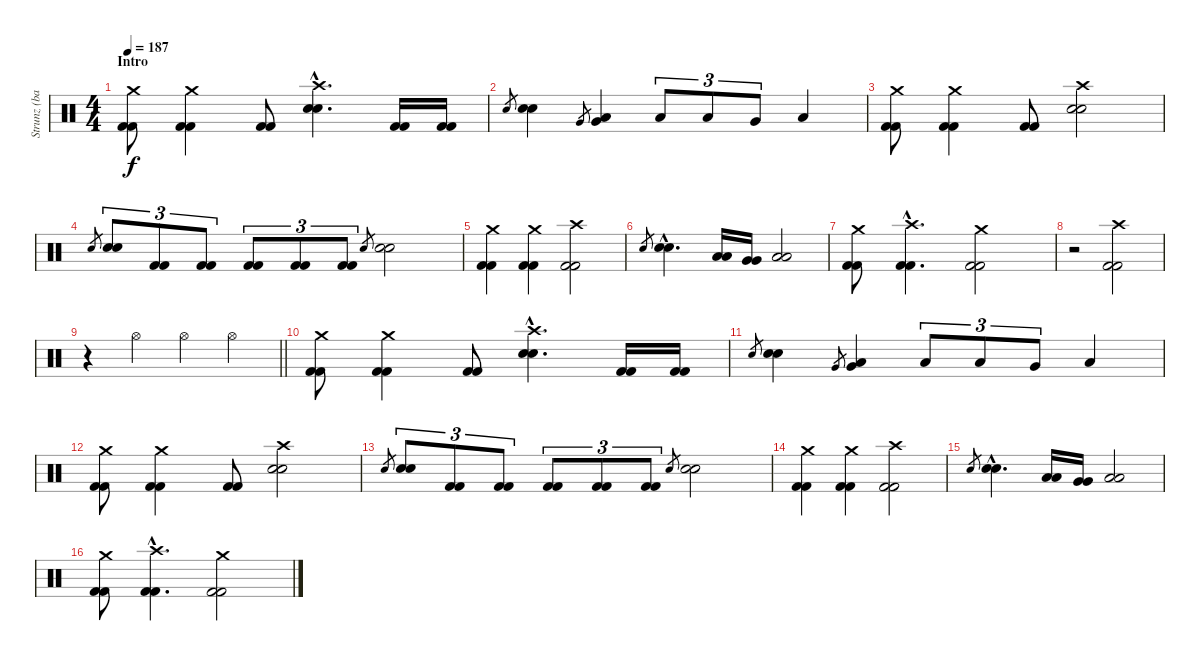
\track ("Strunz (bateria)" "Strunz (ba") {instrument percussion}
\staff {score}
\articulation defaults
\ts (4 4)
\section ("" "Intro")
\tempo 187
\clef neutral
\ks c
("Crash medium (hit)" "Kick (hit) 2" "Kick (hit) 2").8{dy f} ("Crash medium (hit)" "Kick (hit) 2" "Kick (hit) 2").4 ("Kick (hit) 2" "Kick (hit) 2").8 ("Crash high (hit)"{hac} "Snare (hit) 2"{hac} "Snare (hit) 2"{hac}).4{d} ("Kick (hit) 2" "Kick (hit) 2").16 ("Kick (hit) 2" "Kick (hit) 2").16 |
"Snare (hit) 2".8{gr} ("Snare (hit) 2" "Snare (hit) 2").4 "Very Low Tom (hit)".8{gr} ("Very Low Tom (hit)" "Low Tom (hit)").4 "Low Tom (hit)".8{tu (3 2)} "Low Tom (hit)".8{tu (3 2)} "Very Low Tom (hit)".8{tu (3 2)} "Low Floor Tom (hit)".4 |
("Crash medium (hit)" "Kick (hit) 2" "Kick (hit) 2").8 ("Crash medium (hit)" "Kick (hit) 2" "Kick (hit) 2").4 ("Kick (hit) 2" "Kick (hit) 2").8 ("Crash high (hit)" "Snare (hit) 2" "Snare (hit) 2").2 |
"Snare (hit) 2".8{gr} ("Snare (hit) 2" "Snare (hit) 2").8{tu (3 2)} ("Kick (hit) 2" "Kick (hit) 2").8{tu (3 2)} ("Kick (hit) 2" "Kick (hit) 2").8{tu (3 2)} ("Kick (hit) 2" "Kick (hit) 2").8{tu (3 2)} ("Kick (hit) 2" "Kick (hit) 2").8{tu (3 2)} ("Kick (hit) 2" "Kick (hit) 2").8{tu (3 2)} "Snare (hit) 2".8{gr} ("Snare (hit) 2" "Snare (hit) 2").2 |
("Crash medium (hit)" "Kick (hit) 2" "Kick (hit) 2").4 ("Crash medium (hit)" "Kick (hit) 2" "Kick (hit) 2").4 ("Crash high (hit)" "Kick (hit) 2" "Kick (hit) 2").2 |
"Snare (hit) 2".8{gr} ("Snare (hit) 2"{hac} "Snare (hit) 2"{hac}).4{d} ("Low Tom (hit)" "Low Tom (hit)").16 ("Very Low Tom (hit)" "Very Low Tom (hit)").16 ("Low Floor Tom (hit)" "Low Floor Tom (hit)").2 |
("Crash medium (hit)" "Kick (hit) 2" "Kick (hit) 2").8 ("Crash high (hit)"{hac} "Kick (hit) 2"{hac} "Kick (hit) 2"{hac}).4{d} ("Crash medium (hit)" "Kick (hit) 2" "Kick (hit) 2").2 |
r.2 ("Crash high (hit)" "Kick (hit) 2" "Kick (hit) 2").2 |
\barLineRight lightlight
r.4 "Hi-Hat (open)".4 "Hi-Hat (open)".4 "Hi-Hat (open)".4 |
("Crash medium (hit)" "Kick (hit) 2" "Kick (hit) 2").8 ("Crash medium (hit)" "Kick (hit) 2" "Kick (hit) 2").4 ("Kick (hit) 2" "Kick (hit) 2").8 ("Crash high (hit)"{hac} "Snare (hit) 2"{hac} "Snare (hit) 2"{hac}).4{d} ("Kick (hit) 2" "Kick (hit) 2").16 ("Kick (hit) 2" "Kick (hit) 2").16 |
"Snare (hit) 2".8{gr} ("Snare (hit) 2" "Snare (hit) 2").4 "Very Low Tom (hit)".8{gr} ("Very Low Tom (hit)" "Low Tom (hit)").4 "Low Tom (hit)".8{tu (3 2)} "Low Tom (hit)".8{tu (3 2)} "Very Low Tom (hit)".8{tu (3 2)} "Low Floor Tom (hit)".4 |
("Crash medium (hit)" "Kick (hit) 2" "Kick (hit) 2").8 ("Crash medium (hit)" "Kick (hit) 2" "Kick (hit) 2").4 ("Kick (hit) 2" "Kick (hit) 2").8 ("Crash high (hit)" "Snare (hit) 2" "Snare (hit) 2").2 |
"Snare (hit) 2".8{gr} ("Snare (hit) 2" "Snare (hit) 2").8{tu (3 2)} ("Kick (hit) 2" "Kick (hit) 2").8{tu (3 2)} ("Kick (hit) 2" "Kick (hit) 2").8{tu (3 2)} ("Kick (hit) 2" "Kick (hit) 2").8{tu (3 2)} ("Kick (hit) 2" "Kick (hit) 2").8{tu (3 2)} ("Kick (hit) 2" "Kick (hit) 2").8{tu (3 2)} "Snare (hit) 2".8{gr} ("Snare (hit) 2" "Snare (hit) 2").2 |
("Crash medium (hit)" "Kick (hit) 2" "Kick (hit) 2").4 ("Crash medium (hit)" "Kick (hit) 2" "Kick (hit) 2").4 ("Crash high (hit)" "Kick (hit) 2" "Kick (hit) 2").2 |
"Snare (hit) 2".8{gr} ("Snare (hit) 2"{hac} "Snare (hit) 2"{hac}).4{d} ("Low Tom (hit)" "Low Tom (hit)").16 ("Very Low Tom (hit)" "Very Low Tom (hit)").16 ("Low Floor Tom (hit)" "Low Floor Tom (hit)").2 |
("Crash medium (hit)" "Kick (hit) 2" "Kick (hit) 2").8 ("Crash high (hit)"{hac} "Kick (hit) 2"{hac} "Kick (hit) 2"{hac}).4{d} ("Crash medium (hit)" "Kick (hit) 2" "Kick (hit) 2").2
